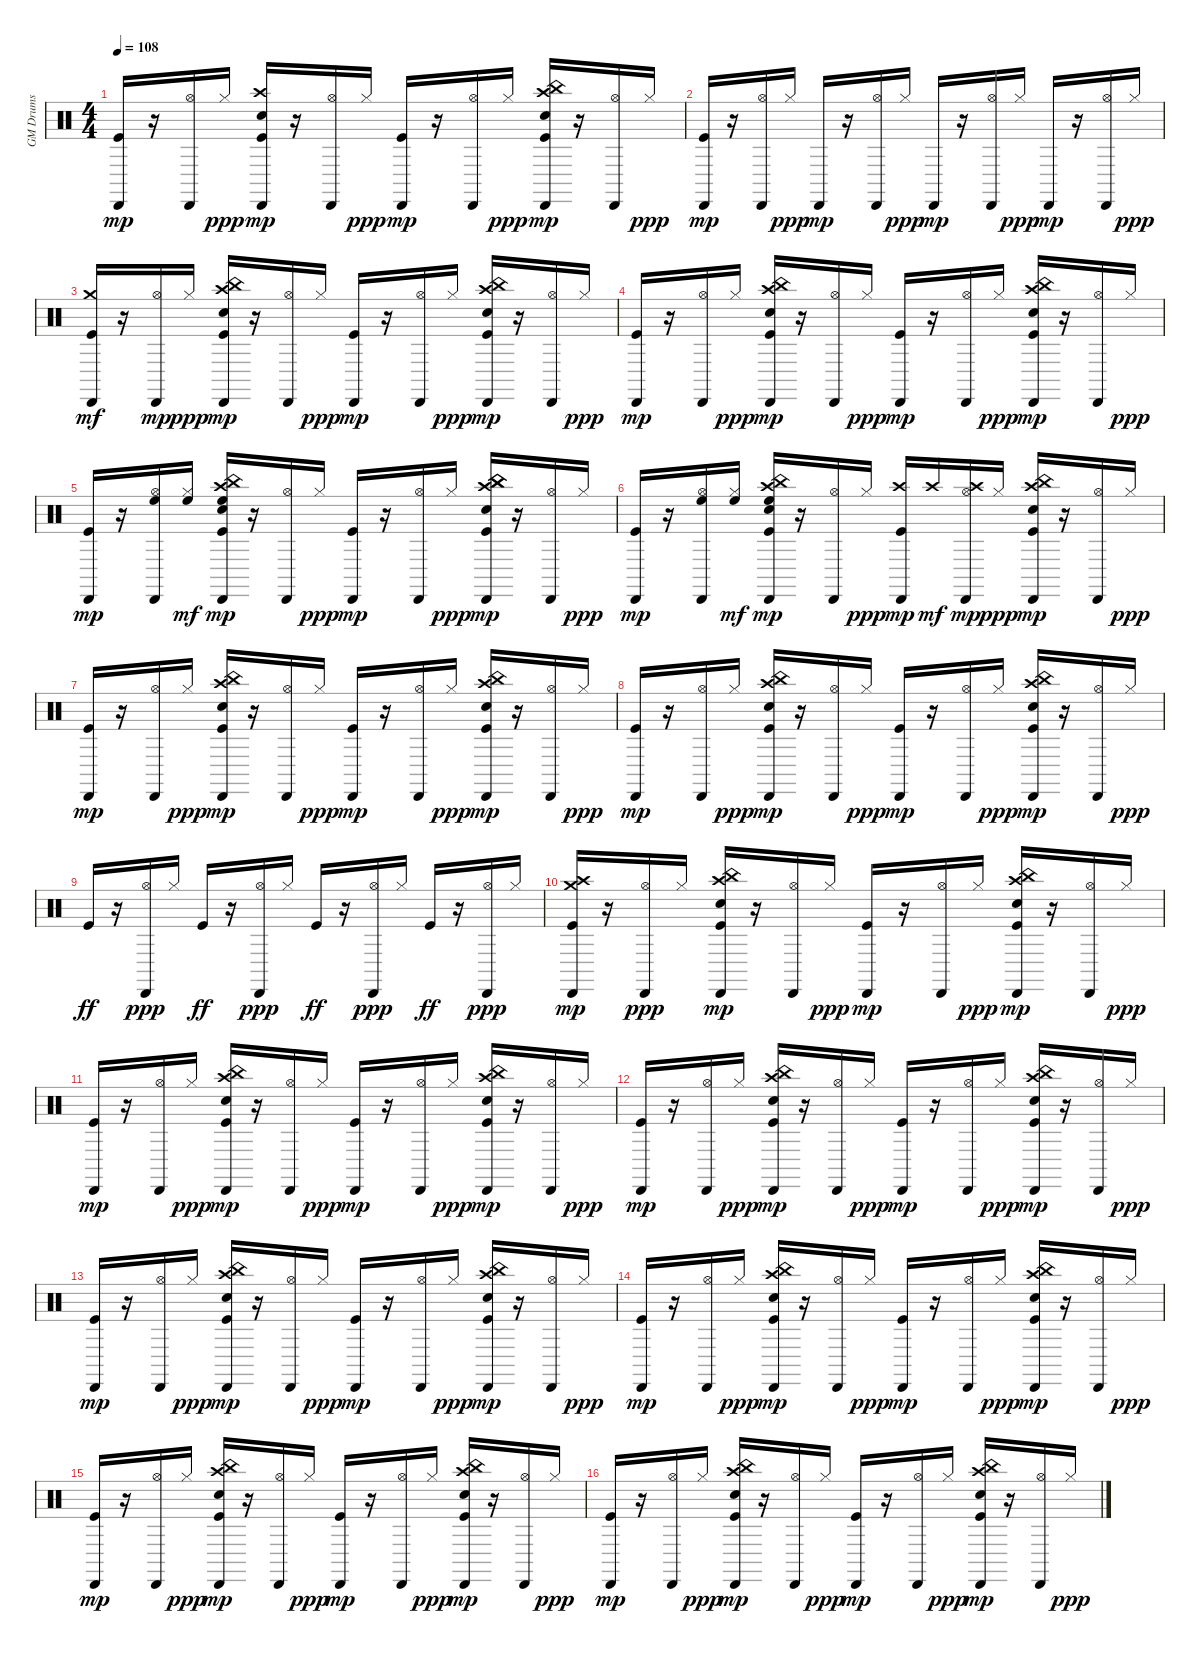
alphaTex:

\track ("GM Drums" "GM Drums") {instrument percussion}
\staff {score}
\articulation defaults
\ts (4 4)
\tempo 108
\clef neutral
\ks c
("Kick (hit)" "Cabasa (hit)").16{dy mp} r.16 ("Hi-Hat (open)" "Cabasa (hit)").16 "Hi-Hat (closed)".16{dy ppp} ("Kick (hit)" "Electric Snare (hit)" "Crash high (hit)" "Cabasa (hit)").16{dy mp} r.16 ("Hi-Hat (open)" "Cabasa (hit)").16 "Hi-Hat (closed)".16{dy ppp} ("Kick (hit)" "Cabasa (hit)").16{dy mp} r.16 ("Hi-Hat (open)" "Cabasa (hit)").16 "Hi-Hat (closed)".16{dy ppp} ("Kick (hit)" "Electric Snare (hit)" "Crash high (hit)" "China (hit)" "Cabasa (hit)").16{dy mp} r.16 ("Hi-Hat (open)" "Cabasa (hit)").16 "Hi-Hat (closed)".16{dy ppp} |
("Kick (hit)" "Cabasa (hit)").16{dy mp} r.16 ("Hi-Hat (open)" "Cabasa (hit)").16 "Hi-Hat (closed)".16{dy ppp} "Cabasa (hit)".16{dy mp} r.16 ("Hi-Hat (open)" "Cabasa (hit)").16 "Hi-Hat (closed)".16{dy ppp} "Cabasa (hit)".16{dy mp} r.16 ("Hi-Hat (open)" "Cabasa (hit)").16 "Hi-Hat (closed)".16{dy ppp} "Cabasa (hit)".16{dy mp} r.16 ("Hi-Hat (open)" "Cabasa (hit)").16 "Hi-Hat (closed)".16{dy ppp} |
("Kick (hit)" "Cabasa (hit)" "Crash medium (hit)").16{dy mf} r.16 ("Hi-Hat (open)" "Cabasa (hit)").16{dy mp} "Hi-Hat (closed)".16{dy ppp} ("Kick (hit)" "Electric Snare (hit)" "Crash high (hit)" "China (hit)" "Cabasa (hit)").16{dy mp} r.16 ("Hi-Hat (open)" "Cabasa (hit)").16 "Hi-Hat (closed)".16{dy ppp} ("Kick (hit)" "Cabasa (hit)").16{dy mp} r.16 ("Hi-Hat (open)" "Cabasa (hit)").16 "Hi-Hat (closed)".16{dy ppp} ("Kick (hit)" "Electric Snare (hit)" "Crash high (hit)" "China (hit)" "Cabasa (hit)").16{dy mp} r.16 ("Hi-Hat (open)" "Cabasa (hit)").16 "Hi-Hat (closed)".16{dy ppp} |
("Kick (hit)" "Cabasa (hit)").16{dy mp} r.16 ("Hi-Hat (open)" "Cabasa (hit)").16 "Hi-Hat (closed)".16{dy ppp} ("Kick (hit)" "Electric Snare (hit)" "Crash high (hit)" "China (hit)" "Cabasa (hit)").16{dy mp} r.16 ("Hi-Hat (open)" "Cabasa (hit)").16 "Hi-Hat (closed)".16{dy ppp} ("Kick (hit)" "Cabasa (hit)").16{dy mp} r.16 ("Hi-Hat (open)" "Cabasa (hit)").16 "Hi-Hat (closed)".16{dy ppp} ("Kick (hit)" "Electric Snare (hit)" "Crash high (hit)" "China (hit)" "Cabasa (hit)").16{dy mp} r.16 ("Hi-Hat (open)" "Cabasa (hit)").16 "Hi-Hat (closed)".16{dy ppp} |
("Kick (hit)" "Cabasa (hit)").16{dy mp} r.16 ("Hi-Hat (open)" "High Floor Tom (hit)" "Cabasa (hit)").16 ("Hi-Hat (closed)" "High Floor Tom (hit)").16{dy mf} ("Kick (hit)" "Electric Snare (hit)" "Crash high (hit)" "High Floor Tom (hit)" "China (hit)" "Cabasa (hit)").16{dy mp} r.16 ("Hi-Hat (open)" "Cabasa (hit)").16 "Hi-Hat (closed)".16{dy ppp} ("Kick (hit)" "Cabasa (hit)").16{dy mp} r.16 ("Hi-Hat (open)" "Cabasa (hit)").16 "Hi-Hat (closed)".16{dy ppp} ("Kick (hit)" "Electric Snare (hit)" "Crash high (hit)" "China (hit)" "China (hit)" "Cabasa (hit)").16{dy mp} r.16 ("Hi-Hat (open)" "Cabasa (hit)").16 "Hi-Hat (closed)".16{dy ppp} |
("Kick (hit)" "Cabasa (hit)").16{dy mp} r.16 ("Hi-Hat (open)" "High Floor Tom (hit)" "Cabasa (hit)").16 ("Hi-Hat (closed)" "High Floor Tom (hit)").16{dy mf} ("Kick (hit)" "Electric Snare (hit)" "Crash high (hit)" "High Floor Tom (hit)" "China (hit)" "Cabasa (hit)").16{dy mp} r.16 ("Hi-Hat (open)" "Cabasa (hit)").16 "Hi-Hat (closed)".16{dy ppp} ("Kick (hit)" "Crash high (hit)" "Cabasa (hit)").16{dy mp} "Crash high (hit)".16{dy mf} ("Hi-Hat (open)" "Crash high (hit)" "Cabasa (hit)").16{dy mp} "Hi-Hat (closed)".16{dy ppp} ("Kick (hit)" "Electric Snare (hit)" "Crash high (hit)" "China (hit)" "Cabasa (hit)").16{dy mp} r.16 ("Hi-Hat (open)" "Cabasa (hit)").16 "Hi-Hat (closed)".16{dy ppp} |
("Kick (hit)" "Cabasa (hit)").16{dy mp} r.16 ("Hi-Hat (open)" "Cabasa (hit)").16 "Hi-Hat (closed)".16{dy ppp} ("Kick (hit)" "Electric Snare (hit)" "Crash high (hit)" "China (hit)" "Cabasa (hit)").16{dy mp} r.16 ("Hi-Hat (open)" "Cabasa (hit)").16 "Hi-Hat (closed)".16{dy ppp} ("Kick (hit)" "Cabasa (hit)").16{dy mp} r.16 ("Hi-Hat (open)" "Cabasa (hit)").16 "Hi-Hat (closed)".16{dy ppp} ("Kick (hit)" "Electric Snare (hit)" "Crash high (hit)" "China (hit)" "Cabasa (hit)").16{dy mp} r.16 ("Hi-Hat (open)" "Cabasa (hit)").16 "Hi-Hat (closed)".16{dy ppp} |
("Kick (hit)" "Cabasa (hit)").16{dy mp} r.16 ("Hi-Hat (open)" "Cabasa (hit)").16 "Hi-Hat (closed)".16{dy ppp} ("Kick (hit)" "Electric Snare (hit)" "Crash high (hit)" "China (hit)" "Cabasa (hit)").16{dy mp} r.16 ("Hi-Hat (open)" "Cabasa (hit)").16 "Hi-Hat (closed)".16{dy ppp} ("Kick (hit)" "Cabasa (hit)").16{dy mp} r.16 ("Hi-Hat (open)" "Cabasa (hit)").16 "Hi-Hat (closed)".16{dy ppp} ("Kick (hit)" "Electric Snare (hit)" "Crash high (hit)" "China (hit)" "Cabasa (hit)").16{dy mp} r.16 ("Hi-Hat (open)" "Cabasa (hit)").16 "Hi-Hat (closed)".16{dy ppp} |
"Kick (hit)".16{dy ff} r.16 ("Hi-Hat (open)" "Cabasa (hit)").16{dy ppp} "Hi-Hat (closed)".16 "Kick (hit)".16{dy ff} r.16 ("Hi-Hat (open)" "Cabasa (hit)").16{dy ppp} "Hi-Hat (closed)".16 "Kick (hit)".16{dy ff} r.16 ("Hi-Hat (open)" "Cabasa (hit)").16{dy ppp} "Hi-Hat (closed)".16 "Kick (hit)".16{dy ff} r.16 ("Hi-Hat (open)" "Cabasa (hit)").16{dy ppp} "Hi-Hat (closed)".16 |
("Kick (hit)" "Crash medium (hit)" "Cabasa (hit)" "Crash high (hit)").16{dy mp} r.16 ("Hi-Hat (open)" "Cabasa (hit)").16{dy ppp} "Hi-Hat (closed)".16 ("Kick (hit)" "Electric Snare (hit)" "Crash high (hit)" "China (hit)" "Cabasa (hit)").16{dy mp} r.16 ("Hi-Hat (open)" "Cabasa (hit)").16 "Hi-Hat (closed)".16{dy ppp} ("Kick (hit)" "Cabasa (hit)").16{dy mp} r.16 ("Hi-Hat (open)" "Cabasa (hit)").16 "Hi-Hat (closed)".16{dy ppp} ("Kick (hit)" "Electric Snare (hit)" "Crash high (hit)" "China (hit)" "Cabasa (hit)").16{dy mp} r.16 ("Hi-Hat (open)" "Cabasa (hit)").16 "Hi-Hat (closed)".16{dy ppp} |
("Kick (hit)" "Cabasa (hit)").16{dy mp} r.16 ("Hi-Hat (open)" "Cabasa (hit)").16 "Hi-Hat (closed)".16{dy ppp} ("Kick (hit)" "Electric Snare (hit)" "Crash high (hit)" "China (hit)" "Cabasa (hit)").16{dy mp} r.16 ("Hi-Hat (open)" "Cabasa (hit)").16 "Hi-Hat (closed)".16{dy ppp} ("Kick (hit)" "Cabasa (hit)").16{dy mp} r.16 ("Hi-Hat (open)" "Cabasa (hit)").16 "Hi-Hat (closed)".16{dy ppp} ("Kick (hit)" "Electric Snare (hit)" "Crash high (hit)" "China (hit)" "Cabasa (hit)").16{dy mp} r.16 ("Hi-Hat (open)" "Cabasa (hit)").16 "Hi-Hat (closed)".16{dy ppp} |
("Kick (hit)" "Cabasa (hit)").16{dy mp} r.16 ("Hi-Hat (open)" "Cabasa (hit)").16 "Hi-Hat (closed)".16{dy ppp} ("Kick (hit)" "Electric Snare (hit)" "Crash high (hit)" "China (hit)" "Cabasa (hit)").16{dy mp} r.16 ("Hi-Hat (open)" "Cabasa (hit)").16 "Hi-Hat (closed)".16{dy ppp} ("Kick (hit)" "Cabasa (hit)").16{dy mp} r.16 ("Hi-Hat (open)" "Cabasa (hit)").16 "Hi-Hat (closed)".16{dy ppp} ("Kick (hit)" "Electric Snare (hit)" "Crash high (hit)" "China (hit)" "Cabasa (hit)").16{dy mp} r.16 ("Hi-Hat (open)" "Cabasa (hit)").16 "Hi-Hat (closed)".16{dy ppp} |
("Kick (hit)" "Cabasa (hit)").16{dy mp} r.16 ("Hi-Hat (open)" "Cabasa (hit)").16 "Hi-Hat (closed)".16{dy ppp} ("Kick (hit)" "Electric Snare (hit)" "Crash high (hit)" "China (hit)" "Cabasa (hit)").16{dy mp} r.16 ("Hi-Hat (open)" "Cabasa (hit)").16 "Hi-Hat (closed)".16{dy ppp} ("Kick (hit)" "Cabasa (hit)").16{dy mp} r.16 ("Hi-Hat (open)" "Cabasa (hit)").16 "Hi-Hat (closed)".16{dy ppp} ("Kick (hit)" "Electric Snare (hit)" "Crash high (hit)" "China (hit)" "Cabasa (hit)").16{dy mp} r.16 ("Hi-Hat (open)" "Cabasa (hit)").16 "Hi-Hat (closed)".16{dy ppp} |
("Kick (hit)" "Cabasa (hit)").16{dy mp} r.16 ("Hi-Hat (open)" "Cabasa (hit)").16 "Hi-Hat (closed)".16{dy ppp} ("Kick (hit)" "Electric Snare (hit)" "Crash high (hit)" "China (hit)" "Cabasa (hit)").16{dy mp} r.16 ("Hi-Hat (open)" "Cabasa (hit)").16 "Hi-Hat (closed)".16{dy ppp} ("Kick (hit)" "Cabasa (hit)").16{dy mp} r.16 ("Hi-Hat (open)" "Cabasa (hit)").16 "Hi-Hat (closed)".16{dy ppp} ("Kick (hit)" "Electric Snare (hit)" "Crash high (hit)" "China (hit)" "Cabasa (hit)").16{dy mp} r.16 ("Hi-Hat (open)" "Cabasa (hit)").16 "Hi-Hat (closed)".16{dy ppp} |
("Kick (hit)" "Cabasa (hit)").16{dy mp} r.16 ("Hi-Hat (open)" "Cabasa (hit)").16 "Hi-Hat (closed)".16{dy ppp} ("Kick (hit)" "Electric Snare (hit)" "Crash high (hit)" "China (hit)" "Cabasa (hit)").16{dy mp} r.16 ("Hi-Hat (open)" "Cabasa (hit)").16 "Hi-Hat (closed)".16{dy ppp} ("Kick (hit)" "Cabasa (hit)").16{dy mp} r.16 ("Hi-Hat (open)" "Cabasa (hit)").16 "Hi-Hat (closed)".16{dy ppp} ("Kick (hit)" "Electric Snare (hit)" "Crash high (hit)" "China (hit)" "Cabasa (hit)").16{dy mp} r.16 ("Hi-Hat (open)" "Cabasa (hit)").16 "Hi-Hat (closed)".16{dy ppp} |
("Kick (hit)" "Cabasa (hit)").16{dy mp} r.16 ("Hi-Hat (open)" "Cabasa (hit)").16 "Hi-Hat (closed)".16{dy ppp} ("Kick (hit)" "Electric Snare (hit)" "Crash high (hit)" "China (hit)" "Cabasa (hit)").16{dy mp} r.16 ("Hi-Hat (open)" "Cabasa (hit)").16 "Hi-Hat (closed)".16{dy ppp} ("Kick (hit)" "Cabasa (hit)").16{dy mp} r.16 ("Hi-Hat (open)" "Cabasa (hit)").16 "Hi-Hat (closed)".16{dy ppp} ("Kick (hit)" "Electric Snare (hit)" "Crash high (hit)" "China (hit)" "Cabasa (hit)").16{dy mp} r.16 ("Hi-Hat (open)" "Cabasa (hit)").16 "Hi-Hat (closed)".16{dy ppp}
